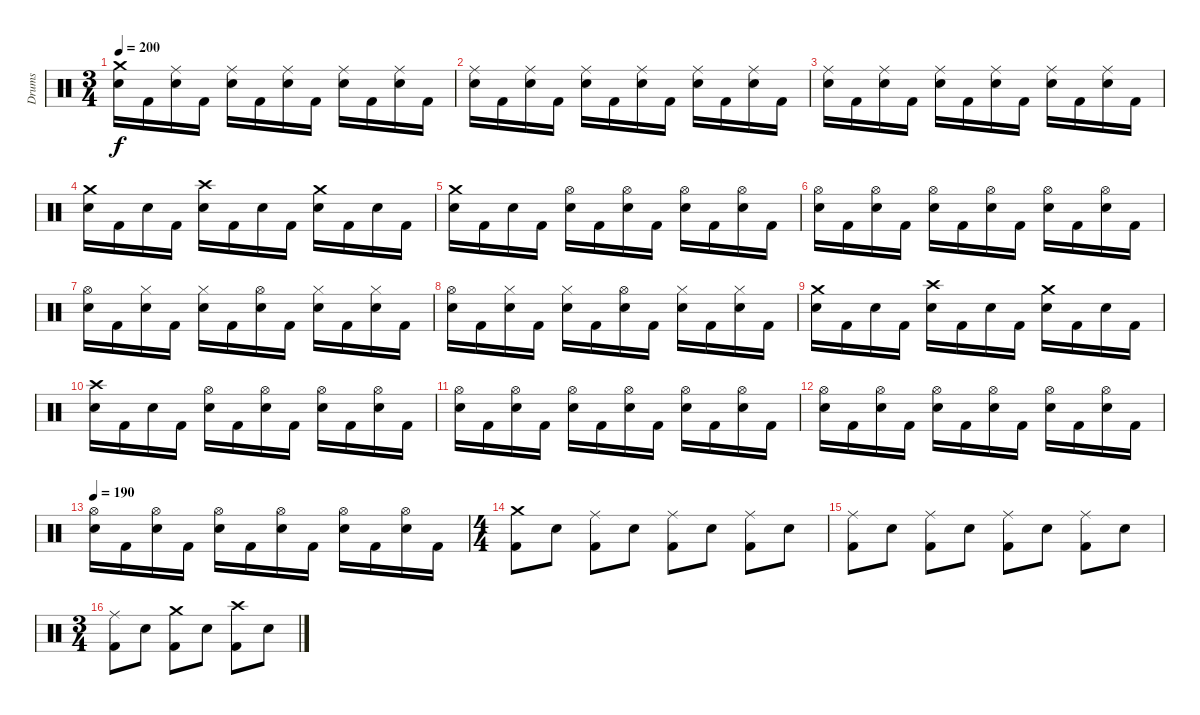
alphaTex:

\track ("Drums" "Drums") {instrument percussion}
\staff {score}
\articulation defaults
\ts (3 4)
\tempo 200
\clef neutral
\ks c
("Snare (hit) 2" "Crash medium (hit)").16{dy f} "Kick (hit) 2".16 ("Snare (hit) 2" "Ride (middle)").16 "Kick (hit) 2".16 ("Snare (hit) 2" "Ride (middle)").16 "Kick (hit) 2".16 ("Snare (hit) 2" "Ride (middle)").16 "Kick (hit) 2".16 ("Snare (hit) 2" "Ride (middle)").16 "Kick (hit) 2".16 ("Snare (hit) 2" "Ride (middle)").16 "Kick (hit) 2".16 |
("Snare (hit) 2" "Ride (middle)").16 "Kick (hit) 2".16 ("Snare (hit) 2" "Ride (middle)").16 "Kick (hit) 2".16 ("Snare (hit) 2" "Ride (middle)").16 "Kick (hit) 2".16 ("Snare (hit) 2" "Ride (middle)").16 "Kick (hit) 2".16 ("Snare (hit) 2" "Ride (middle)").16 "Kick (hit) 2".16 ("Snare (hit) 2" "Ride (middle)").16 "Kick (hit) 2".16 |
("Snare (hit) 2" "Ride (middle)").16 "Kick (hit) 2".16 ("Snare (hit) 2" "Ride (middle)").16 "Kick (hit) 2".16 ("Snare (hit) 2" "Ride (middle)").16 "Kick (hit) 2".16 ("Snare (hit) 2" "Ride (middle)").16 "Kick (hit) 2".16 ("Snare (hit) 2" "Ride (middle)").16 "Kick (hit) 2".16 ("Snare (hit) 2" "Ride (middle)").16 "Kick (hit) 2".16 |
("Snare (hit) 2" "Crash medium (hit)").16 "Kick (hit) 2".16 "Snare (hit) 2".16 "Kick (hit) 2".16 ("Snare (hit) 2" "Crash high (hit)").16 "Kick (hit) 2".16 "Snare (hit) 2".16 "Kick (hit) 2".16 ("Snare (hit) 2" "Crash medium (hit)").16 "Kick (hit) 2".16 "Snare (hit) 2".16 "Kick (hit) 2".16 |
("Snare (hit) 2" "Crash medium (hit)").16 "Kick (hit) 2".16 "Snare (hit) 2".16 "Kick (hit) 2".16 ("Snare (hit) 2" "Hi-Hat (open)").16 "Kick (hit) 2".16 ("Snare (hit) 2" "Hi-Hat (open)").16 "Kick (hit) 2".16 ("Snare (hit) 2" "Hi-Hat (open)").16 "Kick (hit) 2".16 ("Snare (hit) 2" "Hi-Hat (open)").16 "Kick (hit) 2".16 |
("Snare (hit) 2" "Hi-Hat (open)").16 "Kick (hit) 2".16 ("Snare (hit) 2" "Hi-Hat (open)").16 "Kick (hit) 2".16 ("Snare (hit) 2" "Hi-Hat (open)").16 "Kick (hit) 2".16 ("Snare (hit) 2" "Hi-Hat (open)").16 "Kick (hit) 2".16 ("Snare (hit) 2" "Hi-Hat (open)").16 "Kick (hit) 2".16 ("Snare (hit) 2" "Hi-Hat (open)").16 "Kick (hit) 2".16 |
("Snare (hit) 2" "Hi-Hat (open)").16 "Kick (hit) 2".16 ("Snare (hit) 2" "Hi-Hat (closed)").16 "Kick (hit) 2".16 ("Snare (hit) 2" "Hi-Hat (closed)").16 "Kick (hit) 2".16 ("Snare (hit) 2" "Hi-Hat (open)").16 "Kick (hit) 2".16 ("Snare (hit) 2" "Hi-Hat (closed)").16 "Kick (hit) 2".16 ("Snare (hit) 2" "Hi-Hat (closed)").16 "Kick (hit) 2".16 |
("Snare (hit) 2" "Hi-Hat (open)").16 "Kick (hit) 2".16 ("Snare (hit) 2" "Hi-Hat (closed)").16 "Kick (hit) 2".16 ("Snare (hit) 2" "Hi-Hat (closed)").16 "Kick (hit) 2".16 ("Snare (hit) 2" "Hi-Hat (open)").16 "Kick (hit) 2".16 ("Snare (hit) 2" "Hi-Hat (closed)").16 "Kick (hit) 2".16 ("Snare (hit) 2" "Hi-Hat (closed)").16 "Kick (hit) 2".16 |
("Snare (hit) 2" "Crash medium (hit)").16 "Kick (hit) 2".16 "Snare (hit) 2".16 "Kick (hit) 2".16 ("Snare (hit) 2" "Crash high (hit)").16 "Kick (hit) 2".16 "Snare (hit) 2".16 "Kick (hit) 2".16 ("Snare (hit) 2" "Crash medium (hit)").16 "Kick (hit) 2".16 "Snare (hit) 2".16 "Kick (hit) 2".16 |
("Snare (hit) 2" "Crash high (hit)").16 "Kick (hit) 2".16 "Snare (hit) 2".16 "Kick (hit) 2".16 ("Snare (hit) 2" "Hi-Hat (open)").16 "Kick (hit) 2".16 ("Snare (hit) 2" "Hi-Hat (open)").16 "Kick (hit) 2".16 ("Snare (hit) 2" "Hi-Hat (open)").16 "Kick (hit) 2".16 ("Snare (hit) 2" "Hi-Hat (open)").16 "Kick (hit) 2".16 |
("Snare (hit) 2" "Hi-Hat (open)").16 "Kick (hit) 2".16 ("Snare (hit) 2" "Hi-Hat (open)").16 "Kick (hit) 2".16 ("Snare (hit) 2" "Hi-Hat (open)").16 "Kick (hit) 2".16 ("Snare (hit) 2" "Hi-Hat (open)").16 "Kick (hit) 2".16 ("Snare (hit) 2" "Hi-Hat (open)").16 "Kick (hit) 2".16 ("Snare (hit) 2" "Hi-Hat (open)").16 "Kick (hit) 2".16 |
("Snare (hit) 2" "Hi-Hat (open)").16 "Kick (hit) 2".16 ("Snare (hit) 2" "Hi-Hat (open)").16 "Kick (hit) 2".16 ("Snare (hit) 2" "Hi-Hat (open)").16 "Kick (hit) 2".16 ("Snare (hit) 2" "Hi-Hat (open)").16 "Kick (hit) 2".16 ("Snare (hit) 2" "Hi-Hat (open)").16 "Kick (hit) 2".16 ("Snare (hit) 2" "Hi-Hat (open)").16 "Kick (hit) 2".16 |
\tempo 190
("Snare (hit) 2" "Hi-Hat (open)").16 "Kick (hit) 2".16 ("Snare (hit) 2" "Hi-Hat (open)").16 "Kick (hit) 2".16 ("Snare (hit) 2" "Hi-Hat (open)").16 "Kick (hit) 2".16 ("Snare (hit) 2" "Hi-Hat (open)").16 "Kick (hit) 2".16 ("Snare (hit) 2" "Hi-Hat (open)").16 "Kick (hit) 2".16 ("Snare (hit) 2" "Hi-Hat (open)").16 "Kick (hit) 2".16 |
\ts (4 4)
("Kick (hit) 2" "Crash medium (hit)").8 "Electric Snare (hit)".8 ("Kick (hit) 2" "Ride (middle)").8 "Electric Snare (hit)".8 ("Kick (hit) 2" "Ride (middle)").8 "Electric Snare (hit)".8 ("Kick (hit) 2" "Ride (middle)").8 "Electric Snare (hit)".8 |
("Kick (hit) 2" "Ride (middle)").8 "Electric Snare (hit)".8 ("Kick (hit) 2" "Ride (middle)").8 "Electric Snare (hit)".8 ("Kick (hit) 2" "Ride (middle)").8 "Electric Snare (hit)".8 ("Kick (hit) 2" "Ride (middle)").8 "Electric Snare (hit)".8 |
\ts (3 4)
("Kick (hit) 2" "Ride (middle)").8 "Electric Snare (hit)".8 ("Kick (hit) 2" "Crash medium (hit)").8 "Electric Snare (hit)".8 ("Kick (hit) 2" "Crash high (hit)").8 "Electric Snare (hit)".8
